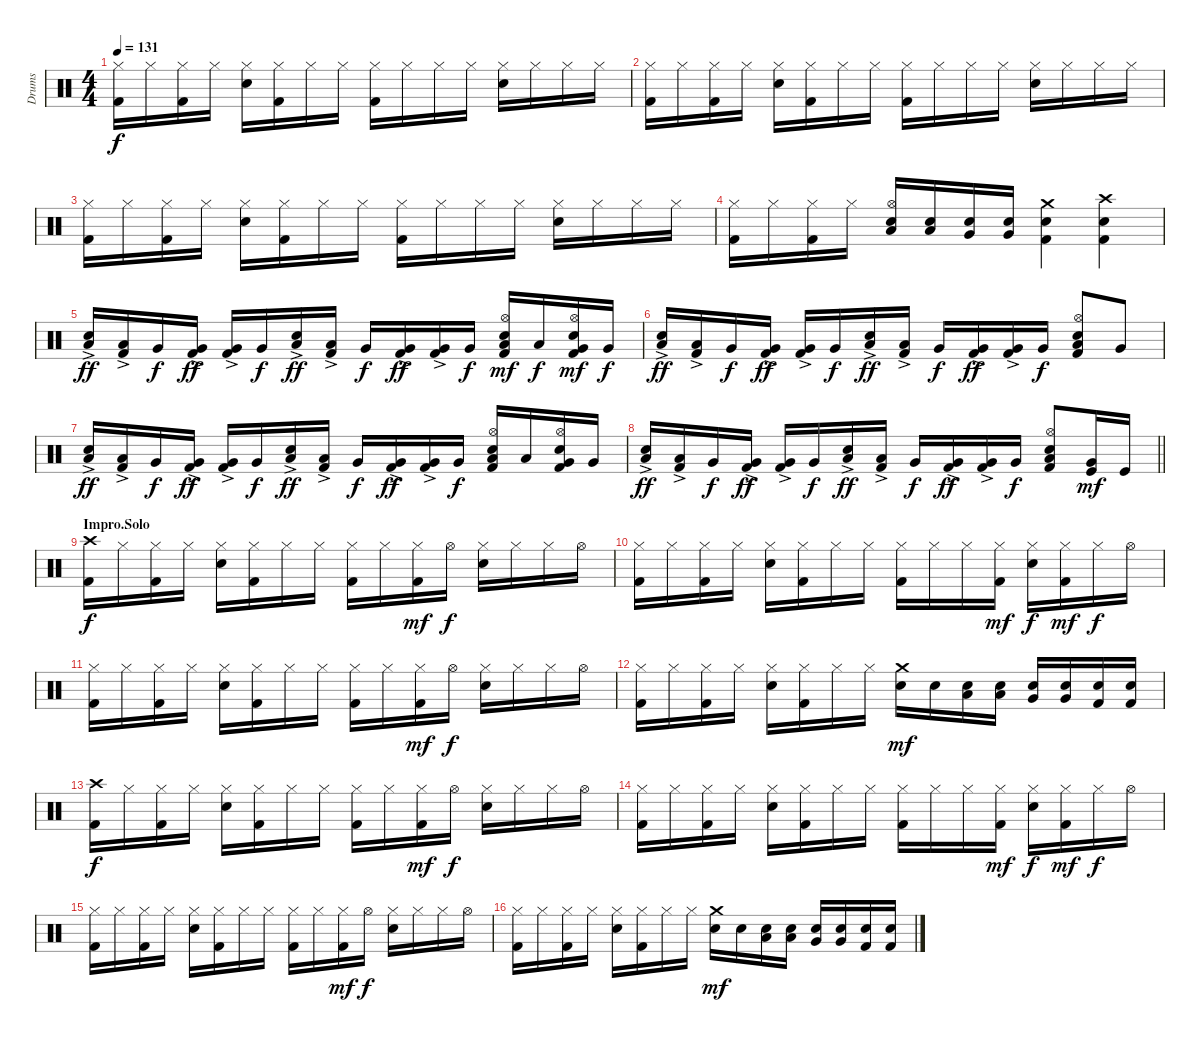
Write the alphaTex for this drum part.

\track ("Drums" "Drums") {instrument percussion}
\staff {score}
\articulation defaults
\ts (4 4)
\tempo 131
\clef neutral
\ks c
("Hi-Hat (closed)" "Kick (hit) 2").16{dy f} "Hi-Hat (closed)".16 ("Hi-Hat (closed)" "Kick (hit) 2").16 "Hi-Hat (closed)".16 ("Hi-Hat (closed)" "Snare (hit) 2").16 ("Hi-Hat (closed)" "Kick (hit) 2").16 "Hi-Hat (closed)".16 "Hi-Hat (closed)".16 ("Hi-Hat (closed)" "Kick (hit) 2").16 "Hi-Hat (closed)".16 "Hi-Hat (closed)".16 "Hi-Hat (closed)".16 ("Hi-Hat (closed)" "Snare (hit) 2").16 "Hi-Hat (closed)".16 "Hi-Hat (closed)".16 "Hi-Hat (closed)".16 |
("Hi-Hat (closed)" "Kick (hit) 2").16 "Hi-Hat (closed)".16 ("Hi-Hat (closed)" "Kick (hit) 2").16 "Hi-Hat (closed)".16 ("Hi-Hat (closed)" "Snare (hit) 2").16 ("Hi-Hat (closed)" "Kick (hit) 2").16 "Hi-Hat (closed)".16 "Hi-Hat (closed)".16 ("Hi-Hat (closed)" "Kick (hit) 2").16 "Hi-Hat (closed)".16 "Hi-Hat (closed)".16 "Hi-Hat (closed)".16 ("Hi-Hat (closed)" "Snare (hit) 2").16 "Hi-Hat (closed)".16 "Hi-Hat (closed)".16 "Hi-Hat (closed)".16 |
("Hi-Hat (closed)" "Kick (hit) 2").16 "Hi-Hat (closed)".16 ("Hi-Hat (closed)" "Kick (hit) 2").16 "Hi-Hat (closed)".16 ("Hi-Hat (closed)" "Snare (hit) 2").16 ("Hi-Hat (closed)" "Kick (hit) 2").16 "Hi-Hat (closed)".16 "Hi-Hat (closed)".16 ("Hi-Hat (closed)" "Kick (hit) 2").16 "Hi-Hat (closed)".16 "Hi-Hat (closed)".16 "Hi-Hat (closed)".16 ("Hi-Hat (closed)" "Snare (hit) 2").16 "Hi-Hat (closed)".16 "Hi-Hat (closed)".16 "Hi-Hat (closed)".16 |
("Hi-Hat (closed)" "Kick (hit) 2").16 "Hi-Hat (closed)".16 ("Hi-Hat (closed)" "Kick (hit) 2").16 "Hi-Hat (closed)".16 ("Hi-Hat (open)" "Low Tom (hit)" "Snare (hit) 2").16 ("Low Tom (hit)" "Snare (hit) 2").16 ("Very Low Tom (hit)" "Snare (hit) 2").16 ("Very Low Tom (hit)" "Snare (hit) 2").16 ("Crash medium (hit)" "Snare (hit) 2" "Kick (hit) 2").4 ("Crash high (hit)" "Snare (hit) 2" "Kick (hit) 2").4 |
("Snare (hit) 2" "Low Tom (hit)"{ac}).16{dy ff} ("Low Tom (hit)"{ac} "Kick (hit) 2").16 "Very Low Tom (hit)".16{dy f} ("Very Low Tom (hit)"{ac} "Kick (hit) 2").16{dy ff} ("Very Low Tom (hit)"{ac} "Kick (hit) 2").16 "Very Low Tom (hit)".16{dy f} ("Snare (hit) 2" "Low Tom (hit)"{ac}).16{dy ff} ("Low Tom (hit)"{ac} "Kick (hit) 2").16 "Very Low Tom (hit)".16{dy f} ("Very Low Tom (hit)"{ac} "Kick (hit) 2").16{dy ff} ("Very Low Tom (hit)"{ac} "Kick (hit) 2").16 "Very Low Tom (hit)".16{dy f} ("Hi-Hat (open)" "Snare (hit) 2" "Low Tom (hit)" "Kick (hit) 2").16{dy mf} "Low Tom (hit)".16{dy f} ("Hi-Hat (open)" "Snare (hit) 2" "Very Low Tom (hit)" "Kick (hit) 2").16{dy mf} "Very Low Tom (hit)".16{dy f} |
("Snare (hit) 2" "Low Tom (hit)"{ac}).16{dy ff} ("Low Tom (hit)"{ac} "Kick (hit) 2").16 "Very Low Tom (hit)".16{dy f} ("Very Low Tom (hit)"{ac} "Kick (hit) 2").16{dy ff} ("Very Low Tom (hit)"{ac} "Kick (hit) 2").16 "Very Low Tom (hit)".16{dy f} ("Snare (hit) 2" "Low Tom (hit)"{ac}).16{dy ff} ("Low Tom (hit)"{ac} "Kick (hit) 2").16 "Very Low Tom (hit)".16{dy f} ("Very Low Tom (hit)"{ac} "Kick (hit) 2").16{dy ff} ("Very Low Tom (hit)"{ac} "Kick (hit) 2").16 "Very Low Tom (hit)".16{dy f} ("Hi-Hat (open)" "Snare (hit) 2" "Low Tom (hit)" "Kick (hit) 2").8 "Very Low Tom (hit)".8 |
("Snare (hit) 2" "Low Tom (hit)"{ac}).16{dy ff} ("Low Tom (hit)"{ac} "Kick (hit) 2").16 "Very Low Tom (hit)".16{dy f} ("Very Low Tom (hit)"{ac} "Kick (hit) 2").16{dy ff} ("Very Low Tom (hit)"{ac} "Kick (hit) 2").16 "Very Low Tom (hit)".16{dy f} ("Snare (hit) 2" "Low Tom (hit)"{ac}).16{dy ff} ("Low Tom (hit)"{ac} "Kick (hit) 2").16 "Very Low Tom (hit)".16{dy f} ("Very Low Tom (hit)"{ac} "Kick (hit) 2").16{dy ff} ("Very Low Tom (hit)"{ac} "Kick (hit) 2").16 "Very Low Tom (hit)".16{dy f} ("Hi-Hat (open)" "Snare (hit) 2" "Low Tom (hit)" "Kick (hit) 2").16 "Low Tom (hit)".16 ("Hi-Hat (open)" "Snare (hit) 2" "Very Low Tom (hit)" "Kick (hit) 2").16 "Very Low Tom (hit)".16 |
\barLineRight lightlight
("Snare (hit) 2" "Low Tom (hit)"{ac}).16{dy ff} ("Low Tom (hit)"{ac} "Kick (hit) 2").16 "Very Low Tom (hit)".16{dy f} ("Very Low Tom (hit)"{ac} "Kick (hit) 2").16{dy ff} ("Very Low Tom (hit)"{ac} "Kick (hit) 2").16 "Very Low Tom (hit)".16{dy f} ("Snare (hit) 2" "Low Tom (hit)"{ac}).16{dy ff} ("Low Tom (hit)"{ac} "Kick (hit) 2").16 "Very Low Tom (hit)".16{dy f} ("Very Low Tom (hit)"{ac} "Kick (hit) 2").16{dy ff} ("Very Low Tom (hit)"{ac} "Kick (hit) 2").16 "Very Low Tom (hit)".16{dy f} ("Hi-Hat (open)" "Snare (hit) 2" "Low Tom (hit)" "Kick (hit) 2").8 ("Kick (hit)" "Very Low Tom (hit)").16{dy mf} "Kick (hit)".16 |
\section ("" "Impro.Solo")
("Crash high (hit)" "Kick (hit) 2").16{dy f} "Hi-Hat (closed)".16 ("Hi-Hat (closed)" "Kick (hit) 2").16 "Hi-Hat (closed)".16 ("Hi-Hat (closed)" "Snare (hit) 2").16 ("Hi-Hat (closed)" "Kick (hit) 2").16 "Hi-Hat (closed)".16 "Hi-Hat (closed)".16 ("Hi-Hat (closed)" "Kick (hit) 2").16 "Hi-Hat (closed)".16 ("Hi-Hat (closed)" "Kick (hit) 2").16{dy mf} "Hi-Hat (open)".16{dy f} ("Hi-Hat (closed)" "Snare (hit) 2").16 "Hi-Hat (closed)".16 "Hi-Hat (closed)".16 "Hi-Hat (open)".16 |
("Hi-Hat (closed)" "Kick (hit) 2").16 "Hi-Hat (closed)".16 ("Hi-Hat (closed)" "Kick (hit) 2").16 "Hi-Hat (closed)".16 ("Hi-Hat (closed)" "Snare (hit) 2").16 ("Hi-Hat (closed)" "Kick (hit) 2").16 "Hi-Hat (closed)".16 "Hi-Hat (closed)".16 ("Hi-Hat (closed)" "Kick (hit) 2").16 "Hi-Hat (closed)".16 "Hi-Hat (closed)".16 ("Hi-Hat (closed)" "Kick (hit) 2").16{dy mf} ("Hi-Hat (closed)" "Snare (hit) 2").16{dy f} ("Hi-Hat (closed)" "Kick (hit) 2").16{dy mf} "Hi-Hat (closed)".16{dy f} "Hi-Hat (open)".16 |
("Hi-Hat (closed)" "Kick (hit) 2").16 "Hi-Hat (closed)".16 ("Hi-Hat (closed)" "Kick (hit) 2").16 "Hi-Hat (closed)".16 ("Hi-Hat (closed)" "Snare (hit) 2").16 ("Hi-Hat (closed)" "Kick (hit) 2").16 "Hi-Hat (closed)".16 "Hi-Hat (closed)".16 ("Hi-Hat (closed)" "Kick (hit) 2").16 "Hi-Hat (closed)".16 ("Hi-Hat (closed)" "Kick (hit) 2").16{dy mf} "Hi-Hat (open)".16{dy f} ("Hi-Hat (closed)" "Snare (hit) 2").16 "Hi-Hat (closed)".16 "Hi-Hat (closed)".16 "Hi-Hat (open)".16 |
("Hi-Hat (closed)" "Kick (hit) 2").16 "Hi-Hat (closed)".16 ("Hi-Hat (closed)" "Kick (hit) 2").16 "Hi-Hat (closed)".16 ("Hi-Hat (closed)" "Snare (hit) 2").16 ("Hi-Hat (closed)" "Kick (hit) 2").16 "Hi-Hat (closed)".16 "Hi-Hat (closed)".16 ("Crash medium (hit)" "Snare (hit) 2").16{dy mf} "Snare (hit) 2".16 ("Low Tom (hit)" "Snare (hit) 2").16 ("Low Tom (hit)" "Snare (hit) 2").16 ("Very Low Tom (hit)" "Snare (hit) 2").16 ("Very Low Tom (hit)" "Snare (hit) 2").16 ("Snare (hit) 2" "Kick (hit) 2").16 ("Snare (hit) 2" "Kick (hit) 2").16 |
("Crash high (hit)" "Kick (hit) 2").16{dy f} "Hi-Hat (closed)".16 ("Hi-Hat (closed)" "Kick (hit) 2").16 "Hi-Hat (closed)".16 ("Hi-Hat (closed)" "Snare (hit) 2").16 ("Hi-Hat (closed)" "Kick (hit) 2").16 "Hi-Hat (closed)".16 "Hi-Hat (closed)".16 ("Hi-Hat (closed)" "Kick (hit) 2").16 "Hi-Hat (closed)".16 ("Hi-Hat (closed)" "Kick (hit) 2").16{dy mf} "Hi-Hat (open)".16{dy f} ("Hi-Hat (closed)" "Snare (hit) 2").16 "Hi-Hat (closed)".16 "Hi-Hat (closed)".16 "Hi-Hat (open)".16 |
("Hi-Hat (closed)" "Kick (hit) 2").16 "Hi-Hat (closed)".16 ("Hi-Hat (closed)" "Kick (hit) 2").16 "Hi-Hat (closed)".16 ("Hi-Hat (closed)" "Snare (hit) 2").16 ("Hi-Hat (closed)" "Kick (hit) 2").16 "Hi-Hat (closed)".16 "Hi-Hat (closed)".16 ("Hi-Hat (closed)" "Kick (hit) 2").16 "Hi-Hat (closed)".16 "Hi-Hat (closed)".16 ("Hi-Hat (closed)" "Kick (hit) 2").16{dy mf} ("Hi-Hat (closed)" "Snare (hit) 2").16{dy f} ("Hi-Hat (closed)" "Kick (hit) 2").16{dy mf} "Hi-Hat (closed)".16{dy f} "Hi-Hat (open)".16 |
("Hi-Hat (closed)" "Kick (hit) 2").16 "Hi-Hat (closed)".16 ("Hi-Hat (closed)" "Kick (hit) 2").16 "Hi-Hat (closed)".16 ("Hi-Hat (closed)" "Snare (hit) 2").16 ("Hi-Hat (closed)" "Kick (hit) 2").16 "Hi-Hat (closed)".16 "Hi-Hat (closed)".16 ("Hi-Hat (closed)" "Kick (hit) 2").16 "Hi-Hat (closed)".16 ("Hi-Hat (closed)" "Kick (hit) 2").16{dy mf} "Hi-Hat (open)".16{dy f} ("Hi-Hat (closed)" "Snare (hit) 2").16 "Hi-Hat (closed)".16 "Hi-Hat (closed)".16 "Hi-Hat (open)".16 |
("Hi-Hat (closed)" "Kick (hit) 2").16 "Hi-Hat (closed)".16 ("Hi-Hat (closed)" "Kick (hit) 2").16 "Hi-Hat (closed)".16 ("Hi-Hat (closed)" "Snare (hit) 2").16 ("Hi-Hat (closed)" "Kick (hit) 2").16 "Hi-Hat (closed)".16 "Hi-Hat (closed)".16 ("Crash medium (hit)" "Snare (hit) 2").16{dy mf} "Snare (hit) 2".16 ("Low Tom (hit)" "Snare (hit) 2").16 ("Low Tom (hit)" "Snare (hit) 2").16 ("Very Low Tom (hit)" "Snare (hit) 2").16 ("Very Low Tom (hit)" "Snare (hit) 2").16 ("Snare (hit) 2" "Kick (hit) 2").16 ("Snare (hit) 2" "Kick (hit) 2").16
